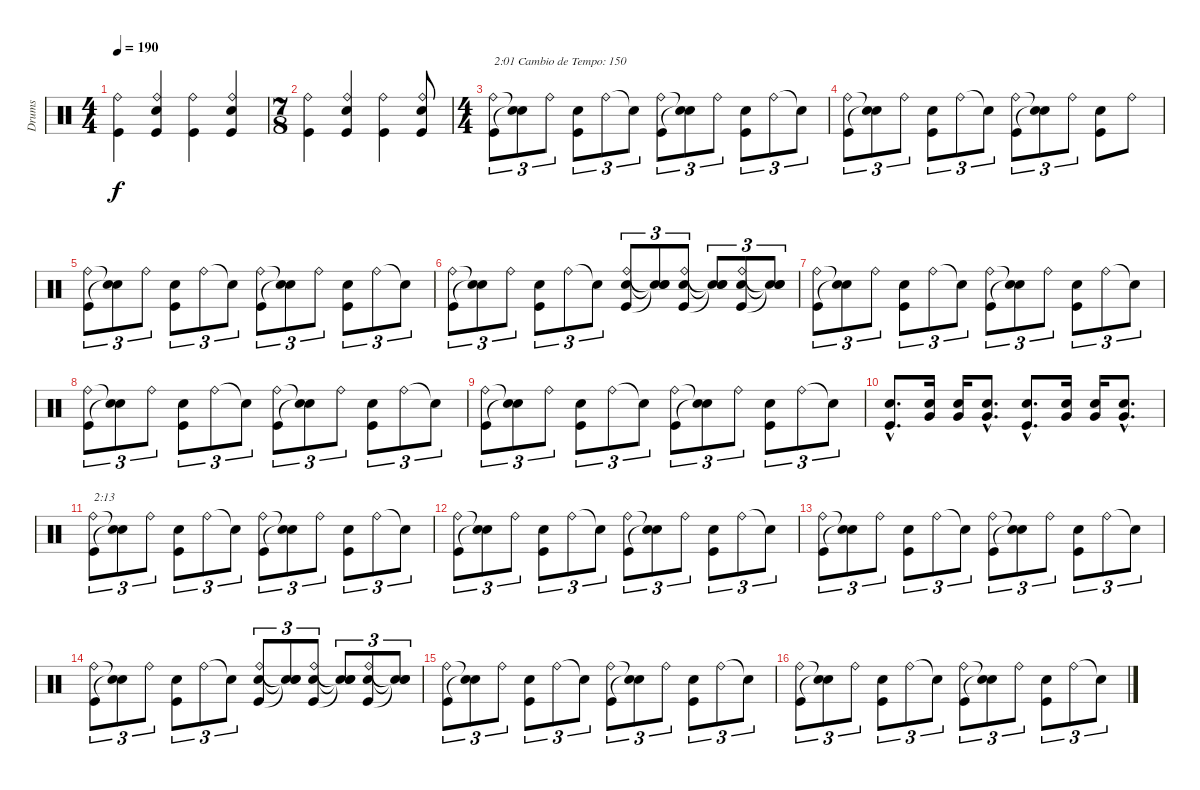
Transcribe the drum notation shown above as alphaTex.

\track ("Drums" "Drums") {instrument percussion}
\staff {score}
\articulation defaults
\ts (4 4)
\tempo 190
\clef neutral
\ks c
("Kick (hit)" "Ride (bell)").4{dy f} ("Kick (hit)" "Snare (hit) 2" "Ride (bell)").4 ("Kick (hit)" "Ride (bell)").4 ("Kick (hit)" "Snare (hit) 2" "Ride (bell)").4 |
\ts (7 8)
("Kick (hit)" "Ride (bell)").4 ("Kick (hit)" "Snare (hit) 2" "Ride (bell)").4 ("Kick (hit)" "Ride (bell)").4 ("Kick (hit)" "Snare (hit) 2" "Ride (bell)").8 |
\ts (4 4)
("Kick (hit)" "Ride (bell)").8{tu (3 2) txt "2:01 Cambio de Tempo: 150"} ("Snare (hit)"{t} "Snare (hit)"{t}).8{tu (3 2)} "Ride (bell)".8{tu (3 2)} ("Kick (hit)" "Snare (hit) 2").8{tu (3 2)} "Ride (bell)".8{tu (3 2)} "Snare (hit)"{t}.8{tu (3 2)} ("Kick (hit)" "Ride (bell)").8{tu (3 2)} ("Snare (hit)"{t} "Snare (hit)"{t}).8{tu (3 2)} "Ride (bell)".8{tu (3 2)} ("Kick (hit)" "Snare (hit) 2").8{tu (3 2)} "Ride (bell)".8{tu (3 2)} "Snare (hit)"{t}.8{tu (3 2)} |
("Kick (hit)" "Ride (bell)").8{tu (3 2)} ("Snare (hit)"{t} "Snare (hit)"{t}).8{tu (3 2)} "Ride (bell)".8{tu (3 2)} ("Kick (hit)" "Snare (hit) 2").8{tu (3 2)} "Ride (bell)".8{tu (3 2)} "Snare (hit)"{t}.8{tu (3 2)} ("Kick (hit)" "Ride (bell)").8{tu (3 2)} ("Snare (hit)"{t} "Snare (hit)"{t}).8{tu (3 2)} "Ride (bell)".8{tu (3 2)} ("Kick (hit)" "Snare (hit) 2").8 "Ride (bell)".8 |
("Kick (hit)" "Ride (bell)").8{tu (3 2)} ("Snare (hit)"{t} "Snare (hit)"{t}).8{tu (3 2)} "Ride (bell)".8{tu (3 2)} ("Kick (hit)" "Snare (hit) 2").8{tu (3 2)} "Ride (bell)".8{tu (3 2)} "Snare (hit)"{t}.8{tu (3 2)} ("Kick (hit)" "Ride (bell)").8{tu (3 2)} ("Snare (hit)"{t} "Snare (hit)"{t}).8{tu (3 2)} "Ride (bell)".8{tu (3 2)} ("Kick (hit)" "Snare (hit) 2").8{tu (3 2)} "Ride (bell)".8{tu (3 2)} "Snare (hit)"{t}.8{tu (3 2)} |
("Kick (hit)" "Ride (bell)").8{tu (3 2)} ("Snare (hit)"{t} "Snare (hit)"{t}).8{tu (3 2)} "Ride (bell)".8{tu (3 2)} ("Kick (hit)" "Snare (hit) 2").8{tu (3 2)} "Ride (bell)".8{tu (3 2)} "Snare (hit)"{t}.8{tu (3 2)} ("Kick (hit)" "Snare (hit) 2" "Ride (bell)").8{tu (3 2)} ("Snare (hit)"{t} "Snare (hit)"{t} "Snare (hit)"{t}).8{tu (3 2)} ("Kick (hit)" "Snare (hit) 2" "Ride (bell)").8{tu (3 2)} ("Snare (hit)"{t} "Snare (hit)"{t} "Snare (hit)"{t}).8{tu (3 2)} ("Kick (hit)" "Snare (hit) 2" "Ride (bell)").8{tu (3 2)} ("Snare (hit)"{t} "Snare (hit)"{t} "Snare (hit)"{t}).8{tu (3 2)} |
("Kick (hit)" "Ride (bell)").8{tu (3 2)} ("Snare (hit)"{t} "Snare (hit)"{t}).8{tu (3 2)} "Ride (bell)".8{tu (3 2)} ("Kick (hit)" "Snare (hit) 2").8{tu (3 2)} "Ride (bell)".8{tu (3 2)} "Snare (hit)"{t}.8{tu (3 2)} ("Kick (hit)" "Ride (bell)").8{tu (3 2)} ("Snare (hit)"{t} "Snare (hit)"{t}).8{tu (3 2)} "Ride (bell)".8{tu (3 2)} ("Kick (hit)" "Snare (hit) 2").8{tu (3 2)} "Ride (bell)".8{tu (3 2)} "Snare (hit)"{t}.8{tu (3 2)} |
("Kick (hit)" "Ride (bell)").8{tu (3 2)} ("Snare (hit)"{t} "Snare (hit)"{t}).8{tu (3 2)} "Ride (bell)".8{tu (3 2)} ("Kick (hit)" "Snare (hit) 2").8{tu (3 2)} "Ride (bell)".8{tu (3 2)} "Snare (hit)"{t}.8{tu (3 2)} ("Kick (hit)" "Ride (bell)").8{tu (3 2)} ("Snare (hit)"{t} "Snare (hit)"{t}).8{tu (3 2)} "Ride (bell)".8{tu (3 2)} ("Kick (hit)" "Snare (hit) 2").8{tu (3 2)} "Ride (bell)".8{tu (3 2)} "Snare (hit)"{t}.8{tu (3 2)} |
("Kick (hit)" "Ride (bell)").8{tu (3 2)} ("Snare (hit)"{t} "Snare (hit)"{t}).8{tu (3 2)} "Ride (bell)".8{tu (3 2)} ("Kick (hit)" "Snare (hit) 2").8{tu (3 2)} "Ride (bell)".8{tu (3 2)} "Snare (hit)"{t}.8{tu (3 2)} ("Kick (hit)" "Ride (bell)").8{tu (3 2)} ("Snare (hit)"{t} "Snare (hit)"{t}).8{tu (3 2)} "Ride (bell)".8{tu (3 2)} ("Kick (hit)" "Snare (hit) 2").8{tu (3 2)} "Ride (bell)".8{tu (3 2)} "Snare (hit)"{t}.8{tu (3 2)} |
("Kick (hit)"{hac} "Snare (hit) 2"{hac}).8{d} ("Snare (hit) 2" "Very Low Tom (hit)").16 ("Snare (hit) 2" "Very Low Tom (hit)").16 ("Snare (hit) 2"{hac} "Very Low Tom (hit)"{hac}).8{d} ("Kick (hit)"{hac} "Snare (hit) 2"{hac}).8{d} ("Snare (hit) 2" "Very Low Tom (hit)").16 ("Snare (hit) 2" "Very Low Tom (hit)").16 ("Snare (hit) 2"{hac} "Very Low Tom (hit)"{hac}).8{d} |
("Kick (hit)" "Ride (bell)").8{tu (3 2) txt "2:13"} ("Snare (hit)"{t} "Snare (hit)"{t}).8{tu (3 2)} "Ride (bell)".8{tu (3 2)} ("Kick (hit)" "Snare (hit) 2").8{tu (3 2)} "Ride (bell)".8{tu (3 2)} "Snare (hit)"{t}.8{tu (3 2)} ("Kick (hit)" "Ride (bell)").8{tu (3 2)} ("Snare (hit)"{t} "Snare (hit)"{t}).8{tu (3 2)} "Ride (bell)".8{tu (3 2)} ("Kick (hit)" "Snare (hit) 2").8{tu (3 2)} "Ride (bell)".8{tu (3 2)} "Snare (hit)"{t}.8{tu (3 2)} |
("Kick (hit)" "Ride (bell)").8{tu (3 2)} ("Snare (hit)"{t} "Snare (hit)"{t}).8{tu (3 2)} "Ride (bell)".8{tu (3 2)} ("Kick (hit)" "Snare (hit) 2").8{tu (3 2)} "Ride (bell)".8{tu (3 2)} "Snare (hit)"{t}.8{tu (3 2)} ("Kick (hit)" "Ride (bell)").8{tu (3 2)} ("Snare (hit)"{t} "Snare (hit)"{t}).8{tu (3 2)} "Ride (bell)".8{tu (3 2)} ("Kick (hit)" "Snare (hit) 2").8{tu (3 2)} "Ride (bell)".8{tu (3 2)} "Snare (hit)"{t}.8{tu (3 2)} |
("Kick (hit)" "Ride (bell)").8{tu (3 2)} ("Snare (hit)"{t} "Snare (hit)"{t}).8{tu (3 2)} "Ride (bell)".8{tu (3 2)} ("Kick (hit)" "Snare (hit) 2").8{tu (3 2)} "Ride (bell)".8{tu (3 2)} "Snare (hit)"{t}.8{tu (3 2)} ("Kick (hit)" "Ride (bell)").8{tu (3 2)} ("Snare (hit)"{t} "Snare (hit)"{t}).8{tu (3 2)} "Ride (bell)".8{tu (3 2)} ("Kick (hit)" "Snare (hit) 2").8{tu (3 2)} "Ride (bell)".8{tu (3 2)} "Snare (hit)"{t}.8{tu (3 2)} |
("Kick (hit)" "Ride (bell)").8{tu (3 2)} ("Snare (hit)"{t} "Snare (hit)"{t}).8{tu (3 2)} "Ride (bell)".8{tu (3 2)} ("Kick (hit)" "Snare (hit) 2").8{tu (3 2)} "Ride (bell)".8{tu (3 2)} "Snare (hit)"{t}.8{tu (3 2)} ("Kick (hit)" "Snare (hit) 2" "Ride (bell)").8{tu (3 2)} ("Snare (hit)"{t} "Snare (hit)"{t} "Snare (hit)"{t}).8{tu (3 2)} ("Kick (hit)" "Snare (hit) 2" "Ride (bell)").8{tu (3 2)} ("Snare (hit)"{t} "Snare (hit)"{t} "Snare (hit)"{t}).8{tu (3 2)} ("Kick (hit)" "Snare (hit) 2" "Ride (bell)").8{tu (3 2)} ("Snare (hit)"{t} "Snare (hit)"{t} "Snare (hit)"{t}).8{tu (3 2)} |
("Kick (hit)" "Ride (bell)").8{tu (3 2)} ("Snare (hit)"{t} "Snare (hit)"{t}).8{tu (3 2)} "Ride (bell)".8{tu (3 2)} ("Kick (hit)" "Snare (hit) 2").8{tu (3 2)} "Ride (bell)".8{tu (3 2)} "Snare (hit)"{t}.8{tu (3 2)} ("Kick (hit)" "Ride (bell)").8{tu (3 2)} ("Snare (hit)"{t} "Snare (hit)"{t}).8{tu (3 2)} "Ride (bell)".8{tu (3 2)} ("Kick (hit)" "Snare (hit) 2").8{tu (3 2)} "Ride (bell)".8{tu (3 2)} "Snare (hit)"{t}.8{tu (3 2)} |
("Kick (hit)" "Ride (bell)").8{tu (3 2)} ("Snare (hit)"{t} "Snare (hit)"{t}).8{tu (3 2)} "Ride (bell)".8{tu (3 2)} ("Kick (hit)" "Snare (hit) 2").8{tu (3 2)} "Ride (bell)".8{tu (3 2)} "Snare (hit)"{t}.8{tu (3 2)} ("Kick (hit)" "Ride (bell)").8{tu (3 2)} ("Snare (hit)"{t} "Snare (hit)"{t}).8{tu (3 2)} "Ride (bell)".8{tu (3 2)} ("Kick (hit)" "Snare (hit) 2").8{tu (3 2)} "Ride (bell)".8{tu (3 2)} "Snare (hit)"{t}.8{tu (3 2)}
